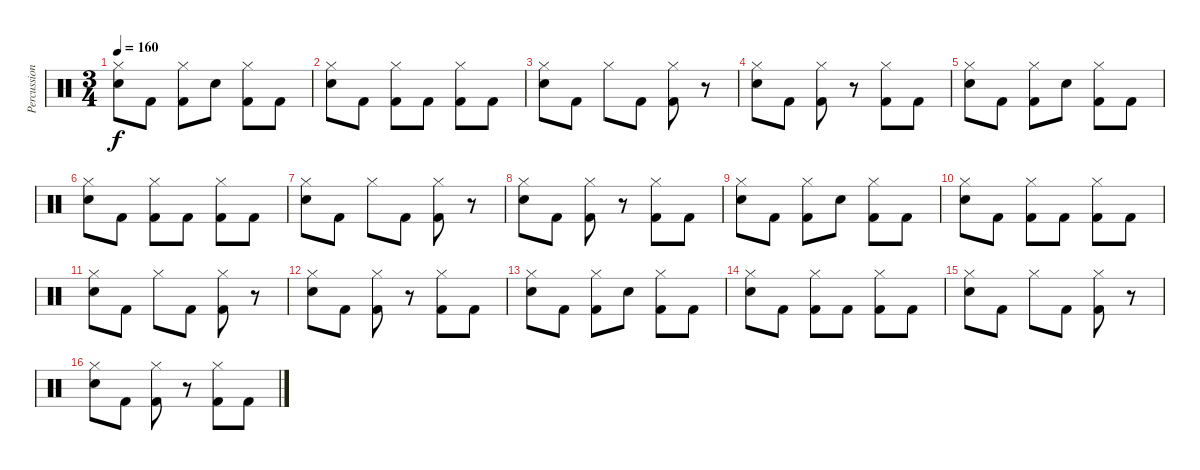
\track ("Percussion" "Percussion") {instrument percussion}
\staff {score}
\articulation defaults
\ts (3 4)
\tempo 160
\clef neutral
\ks c
("Hi-Hat (closed)" "Electric Snare (hit)").8{dy f} "Kick (hit) 2".8 ("Hi-Hat (closed)" "Kick (hit) 2").8 "Electric Snare (hit)".8 ("Hi-Hat (closed)" "Kick (hit) 2").8 "Kick (hit) 2".8 |
("Hi-Hat (closed)" "Electric Snare (hit)").8 "Kick (hit) 2".8 ("Hi-Hat (closed)" "Kick (hit) 2").8 "Kick (hit) 2".8 ("Hi-Hat (closed)" "Kick (hit) 2").8 "Kick (hit) 2".8 |
("Hi-Hat (closed)" "Electric Snare (hit)").8 "Kick (hit) 2".8 "Hi-Hat (closed)".8 "Kick (hit) 2".8 ("Hi-Hat (closed)" "Kick (hit) 2").8 r.8 |
("Hi-Hat (closed)" "Electric Snare (hit)").8 "Kick (hit) 2".8 ("Hi-Hat (closed)" "Kick (hit) 2").8 r.8 ("Hi-Hat (closed)" "Kick (hit) 2").8 "Kick (hit) 2".8 |
("Hi-Hat (closed)" "Electric Snare (hit)").8 "Kick (hit) 2".8 ("Hi-Hat (closed)" "Kick (hit) 2").8 "Electric Snare (hit)".8 ("Hi-Hat (closed)" "Kick (hit) 2").8 "Kick (hit) 2".8 |
("Hi-Hat (closed)" "Electric Snare (hit)").8 "Kick (hit) 2".8 ("Hi-Hat (closed)" "Kick (hit) 2").8 "Kick (hit) 2".8 ("Hi-Hat (closed)" "Kick (hit) 2").8 "Kick (hit) 2".8 |
("Hi-Hat (closed)" "Electric Snare (hit)").8 "Kick (hit) 2".8 "Hi-Hat (closed)".8 "Kick (hit) 2".8 ("Hi-Hat (closed)" "Kick (hit) 2").8 r.8 |
("Hi-Hat (closed)" "Electric Snare (hit)").8 "Kick (hit) 2".8 ("Hi-Hat (closed)" "Kick (hit) 2").8 r.8 ("Hi-Hat (closed)" "Kick (hit) 2").8 "Kick (hit) 2".8 |
("Hi-Hat (closed)" "Electric Snare (hit)").8 "Kick (hit) 2".8 ("Hi-Hat (closed)" "Kick (hit) 2").8 "Electric Snare (hit)".8 ("Hi-Hat (closed)" "Kick (hit) 2").8 "Kick (hit) 2".8 |
("Hi-Hat (closed)" "Electric Snare (hit)").8 "Kick (hit) 2".8 ("Hi-Hat (closed)" "Kick (hit) 2").8 "Kick (hit) 2".8 ("Hi-Hat (closed)" "Kick (hit) 2").8 "Kick (hit) 2".8 |
("Hi-Hat (closed)" "Electric Snare (hit)").8 "Kick (hit) 2".8 "Hi-Hat (closed)".8 "Kick (hit) 2".8 ("Hi-Hat (closed)" "Kick (hit) 2").8 r.8 |
("Hi-Hat (closed)" "Electric Snare (hit)").8 "Kick (hit) 2".8 ("Hi-Hat (closed)" "Kick (hit) 2").8 r.8 ("Hi-Hat (closed)" "Kick (hit) 2").8 "Kick (hit) 2".8 |
("Hi-Hat (closed)" "Electric Snare (hit)").8 "Kick (hit) 2".8 ("Hi-Hat (closed)" "Kick (hit) 2").8 "Electric Snare (hit)".8 ("Hi-Hat (closed)" "Kick (hit) 2").8 "Kick (hit) 2".8 |
("Hi-Hat (closed)" "Electric Snare (hit)").8 "Kick (hit) 2".8 ("Hi-Hat (closed)" "Kick (hit) 2").8 "Kick (hit) 2".8 ("Hi-Hat (closed)" "Kick (hit) 2").8 "Kick (hit) 2".8 |
("Hi-Hat (closed)" "Electric Snare (hit)").8 "Kick (hit) 2".8 "Hi-Hat (closed)".8 "Kick (hit) 2".8 ("Hi-Hat (closed)" "Kick (hit) 2").8 r.8 |
("Hi-Hat (closed)" "Electric Snare (hit)").8 "Kick (hit) 2".8 ("Hi-Hat (closed)" "Kick (hit) 2").8 r.8 ("Hi-Hat (closed)" "Kick (hit) 2").8 "Kick (hit) 2".8
